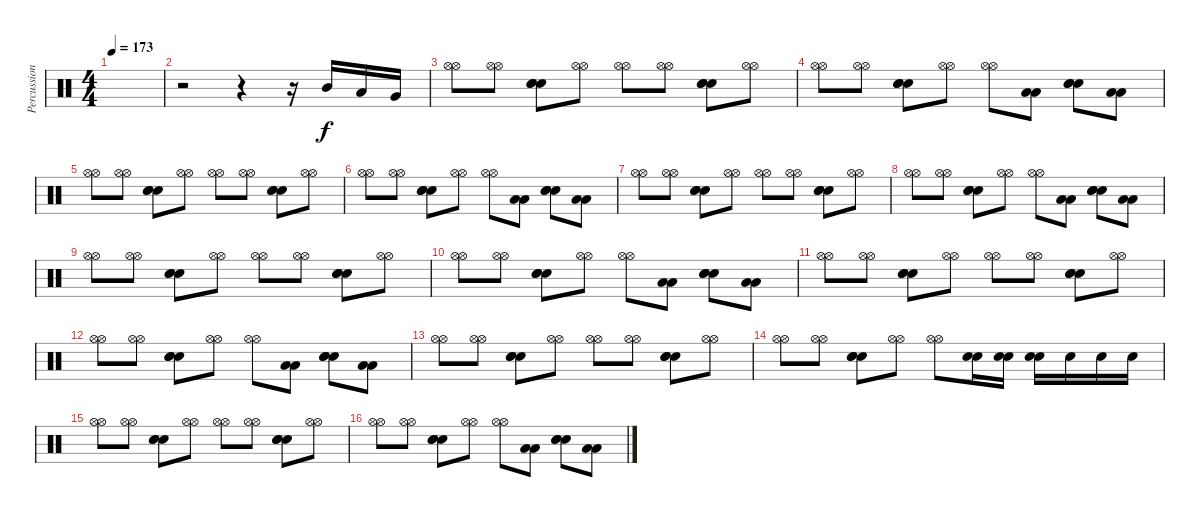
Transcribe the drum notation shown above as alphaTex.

\track ("Percussion" "Percussion") {instrument percussion}
\staff {score}
\articulation defaults
\ts (4 4)
\tempo 173
\clef neutral
\ks c
|
r.2 r.4 r.16 "Mid Tom (hit)".16 "Low Tom (hit)".16 "Very Low Tom (hit)".16 |
("Hi-Hat (open)" "Hi-Hat (open)").8 ("Hi-Hat (open)" "Hi-Hat (open)").8 ("Electric Snare (hit)" "Electric Snare (hit)" "Electric Snare (hit)").8 ("Hi-Hat (open)" "Hi-Hat (open)").8 ("Hi-Hat (open)" "Hi-Hat (open)").8 ("Hi-Hat (open)" "Hi-Hat (open)").8 ("Electric Snare (hit)" "Electric Snare (hit)" "Electric Snare (hit)").8 ("Hi-Hat (open)" "Hi-Hat (open)").8 |
("Hi-Hat (open)" "Hi-Hat (open)").8 ("Hi-Hat (open)" "Hi-Hat (open)").8 ("Electric Snare (hit)" "Electric Snare (hit)" "Electric Snare (hit)").8 ("Hi-Hat (open)" "Hi-Hat (open)").8 ("Hi-Hat (open)" "Hi-Hat (open)").8 ("Low Tom (hit)" "Low Tom (hit)").8 ("Electric Snare (hit)" "Electric Snare (hit)" "Electric Snare (hit)").8 ("Low Tom (hit)" "Low Tom (hit)").8 |
("Hi-Hat (open)" "Hi-Hat (open)").8 ("Hi-Hat (open)" "Hi-Hat (open)").8 ("Electric Snare (hit)" "Electric Snare (hit)" "Electric Snare (hit)").8 ("Hi-Hat (open)" "Hi-Hat (open)").8 ("Hi-Hat (open)" "Hi-Hat (open)").8 ("Hi-Hat (open)" "Hi-Hat (open)").8 ("Electric Snare (hit)" "Electric Snare (hit)" "Electric Snare (hit)").8 ("Hi-Hat (open)" "Hi-Hat (open)").8 |
("Hi-Hat (open)" "Hi-Hat (open)").8 ("Hi-Hat (open)" "Hi-Hat (open)").8 ("Electric Snare (hit)" "Electric Snare (hit)" "Electric Snare (hit)").8 ("Hi-Hat (open)" "Hi-Hat (open)").8 ("Hi-Hat (open)" "Hi-Hat (open)").8 ("Low Tom (hit)" "Low Tom (hit)").8 ("Electric Snare (hit)" "Electric Snare (hit)" "Electric Snare (hit)").8 ("Low Tom (hit)" "Low Tom (hit)").8 |
("Hi-Hat (open)" "Hi-Hat (open)").8 ("Hi-Hat (open)" "Hi-Hat (open)").8 ("Electric Snare (hit)" "Electric Snare (hit)" "Electric Snare (hit)").8 ("Hi-Hat (open)" "Hi-Hat (open)").8 ("Hi-Hat (open)" "Hi-Hat (open)").8 ("Hi-Hat (open)" "Hi-Hat (open)").8 ("Electric Snare (hit)" "Electric Snare (hit)" "Electric Snare (hit)").8 ("Hi-Hat (open)" "Hi-Hat (open)").8 |
("Hi-Hat (open)" "Hi-Hat (open)").8 ("Hi-Hat (open)" "Hi-Hat (open)").8 ("Electric Snare (hit)" "Electric Snare (hit)" "Electric Snare (hit)").8 ("Hi-Hat (open)" "Hi-Hat (open)").8 ("Hi-Hat (open)" "Hi-Hat (open)").8 ("Low Tom (hit)" "Low Tom (hit)").8 ("Electric Snare (hit)" "Electric Snare (hit)" "Electric Snare (hit)").8 ("Low Tom (hit)" "Low Tom (hit)").8 |
("Hi-Hat (open)" "Hi-Hat (open)").8 ("Hi-Hat (open)" "Hi-Hat (open)").8 ("Electric Snare (hit)" "Electric Snare (hit)" "Electric Snare (hit)").8 ("Hi-Hat (open)" "Hi-Hat (open)").8 ("Hi-Hat (open)" "Hi-Hat (open)").8 ("Hi-Hat (open)" "Hi-Hat (open)").8 ("Electric Snare (hit)" "Electric Snare (hit)" "Electric Snare (hit)").8 ("Hi-Hat (open)" "Hi-Hat (open)").8 |
("Hi-Hat (open)" "Hi-Hat (open)").8 ("Hi-Hat (open)" "Hi-Hat (open)").8 ("Electric Snare (hit)" "Electric Snare (hit)" "Electric Snare (hit)").8 ("Hi-Hat (open)" "Hi-Hat (open)").8 ("Hi-Hat (open)" "Hi-Hat (open)").8 ("Low Tom (hit)" "Low Tom (hit)").8 ("Electric Snare (hit)" "Electric Snare (hit)" "Electric Snare (hit)").8 ("Low Tom (hit)" "Low Tom (hit)").8 |
("Hi-Hat (open)" "Hi-Hat (open)").8 ("Hi-Hat (open)" "Hi-Hat (open)").8 ("Electric Snare (hit)" "Electric Snare (hit)" "Electric Snare (hit)").8 ("Hi-Hat (open)" "Hi-Hat (open)").8 ("Hi-Hat (open)" "Hi-Hat (open)").8 ("Hi-Hat (open)" "Hi-Hat (open)").8 ("Electric Snare (hit)" "Electric Snare (hit)" "Electric Snare (hit)").8 ("Hi-Hat (open)" "Hi-Hat (open)").8 |
("Hi-Hat (open)" "Hi-Hat (open)").8 ("Hi-Hat (open)" "Hi-Hat (open)").8 ("Electric Snare (hit)" "Electric Snare (hit)" "Electric Snare (hit)").8 ("Hi-Hat (open)" "Hi-Hat (open)").8 ("Hi-Hat (open)" "Hi-Hat (open)").8 ("Low Tom (hit)" "Low Tom (hit)").8 ("Electric Snare (hit)" "Electric Snare (hit)" "Electric Snare (hit)").8 ("Low Tom (hit)" "Low Tom (hit)").8 |
("Hi-Hat (open)" "Hi-Hat (open)").8 ("Hi-Hat (open)" "Hi-Hat (open)").8 ("Electric Snare (hit)" "Electric Snare (hit)" "Electric Snare (hit)").8 ("Hi-Hat (open)" "Hi-Hat (open)").8 ("Hi-Hat (open)" "Hi-Hat (open)").8 ("Hi-Hat (open)" "Hi-Hat (open)").8 ("Electric Snare (hit)" "Electric Snare (hit)" "Electric Snare (hit)").8 ("Hi-Hat (open)" "Hi-Hat (open)").8 |
("Hi-Hat (open)" "Hi-Hat (open)").8 ("Hi-Hat (open)" "Hi-Hat (open)").8 ("Electric Snare (hit)" "Electric Snare (hit)" "Electric Snare (hit)").8 ("Hi-Hat (open)" "Hi-Hat (open)").8 ("Hi-Hat (open)" "Hi-Hat (open)").8 ("Electric Snare (hit)" "Electric Snare (hit)").16 ("Electric Snare (hit)" "Electric Snare (hit)").16 ("Electric Snare (hit)" "Electric Snare (hit)").16 "Electric Snare (hit)".16 "Electric Snare (hit)".16 "Electric Snare (hit)".16 |
("Hi-Hat (open)" "Hi-Hat (open)").8 ("Hi-Hat (open)" "Hi-Hat (open)").8 ("Electric Snare (hit)" "Electric Snare (hit)" "Electric Snare (hit)").8 ("Hi-Hat (open)" "Hi-Hat (open)").8 ("Hi-Hat (open)" "Hi-Hat (open)").8 ("Hi-Hat (open)" "Hi-Hat (open)").8 ("Electric Snare (hit)" "Electric Snare (hit)" "Electric Snare (hit)").8 ("Hi-Hat (open)" "Hi-Hat (open)").8 |
("Hi-Hat (open)" "Hi-Hat (open)").8 ("Hi-Hat (open)" "Hi-Hat (open)").8 ("Electric Snare (hit)" "Electric Snare (hit)" "Electric Snare (hit)").8 ("Hi-Hat (open)" "Hi-Hat (open)").8 ("Hi-Hat (open)" "Hi-Hat (open)").8 ("Low Tom (hit)" "Low Tom (hit)").8 ("Electric Snare (hit)" "Electric Snare (hit)" "Electric Snare (hit)").8 ("Low Tom (hit)" "Low Tom (hit)").8
